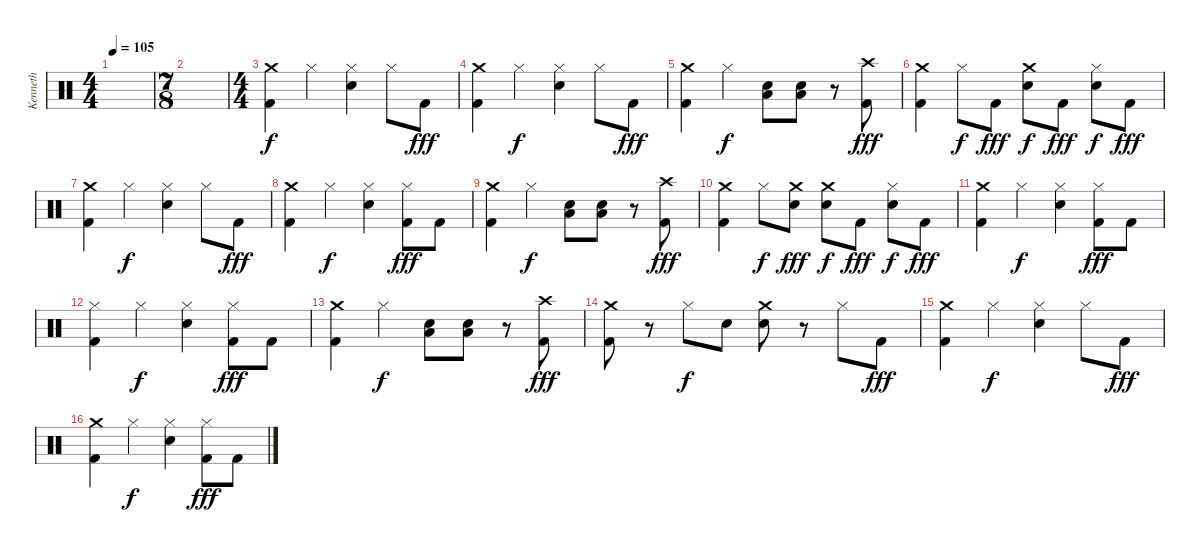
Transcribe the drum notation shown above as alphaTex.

\track ("Kenneth" "Kenneth") {instrument percussion}
\staff {score}
\articulation defaults
\ts (4 4)
\tempo 105
\clef neutral
\ks c
|
\ts (7 8)
|
\ts (4 4)
("Crash medium (hit)" "Kick (hit) 2").4 "Hi-Hat (closed)".4{dy f} ("Hi-Hat (closed)" "Electric Snare (hit)").4 "Hi-Hat (closed)".8 "Kick (hit) 2".8{dy fff} |
("Crash medium (hit)" "Kick (hit) 2").4 "Hi-Hat (closed)".4{dy f} ("Hi-Hat (closed)" "Electric Snare (hit)").4 "Hi-Hat (closed)".8 "Kick (hit) 2".8{dy fff} |
("Crash medium (hit)" "Kick (hit) 2").4 "Hi-Hat (closed)".4{dy f} ("Low Tom (hit)" "Electric Snare (hit)").8 ("Low Tom (hit)" "Electric Snare (hit)").8 r.8 ("Crash high (hit)" "Kick (hit) 2").8{dy fff} |
("Crash medium (hit)" "Kick (hit) 2").4 "Hi-Hat (closed)".8{dy f} "Kick (hit) 2".8{dy fff} ("Crash medium (hit)" "Electric Snare (hit)").8{dy f} "Kick (hit) 2".8{dy fff} ("Hi-Hat (closed)" "Electric Snare (hit)").8{dy f} "Kick (hit) 2".8{dy fff} |
("Crash medium (hit)" "Kick (hit) 2").4 "Hi-Hat (closed)".4{dy f} ("Hi-Hat (closed)" "Electric Snare (hit)").4 "Hi-Hat (closed)".8 "Kick (hit) 2".8{dy fff} |
("Crash medium (hit)" "Kick (hit) 2").4 "Hi-Hat (closed)".4{dy f} ("Hi-Hat (closed)" "Electric Snare (hit)").4 ("Hi-Hat (closed)" "Kick (hit) 2").8{dy fff} "Kick (hit) 2".8 |
("Crash medium (hit)" "Kick (hit) 2").4 "Hi-Hat (closed)".4{dy f} ("Low Tom (hit)" "Electric Snare (hit)").8 ("Low Tom (hit)" "Electric Snare (hit)").8 r.8 ("Crash high (hit)" "Kick (hit) 2").8{dy fff} |
("Crash medium (hit)" "Kick (hit) 2").4 "Hi-Hat (closed)".8{dy f} ("Crash medium (hit)" "Electric Snare (hit)").8{dy fff} ("Crash medium (hit)" "Electric Snare (hit)").8{dy f} "Kick (hit) 2".8{dy fff} ("Hi-Hat (closed)" "Electric Snare (hit)").8{dy f} "Kick (hit) 2".8{dy fff} |
("Crash medium (hit)" "Kick (hit) 2").4 "Hi-Hat (closed)".4{dy f} ("Hi-Hat (closed)" "Electric Snare (hit)").4 ("Hi-Hat (closed)" "Kick (hit) 2").8{dy fff} "Kick (hit) 2".8 |
("Hi-Hat (closed)" "Kick (hit) 2").4 "Hi-Hat (closed)".4{dy f} ("Hi-Hat (closed)" "Electric Snare (hit)").4 ("Hi-Hat (closed)" "Kick (hit) 2").8{dy fff} "Kick (hit) 2".8 |
("Crash medium (hit)" "Kick (hit) 2").4 "Hi-Hat (closed)".4{dy f} ("Low Tom (hit)" "Electric Snare (hit)").8 ("Low Tom (hit)" "Electric Snare (hit)").8 r.8 ("Crash high (hit)" "Kick (hit) 2").8{dy fff} |
("Crash medium (hit)" "Kick (hit) 2").8 r.8 "Hi-Hat (closed)".8{dy f} "Electric Snare (hit)".8 ("Crash medium (hit)" "Electric Snare (hit)").8 r.8 "Hi-Hat (closed)".8 "Kick (hit) 2".8{dy fff} |
("Crash medium (hit)" "Kick (hit) 2").4 "Hi-Hat (closed)".4{dy f} ("Hi-Hat (closed)" "Electric Snare (hit)").4 "Hi-Hat (closed)".8 "Kick (hit) 2".8{dy fff} |
("Crash medium (hit)" "Kick (hit) 2").4 "Hi-Hat (closed)".4{dy f} ("Hi-Hat (closed)" "Electric Snare (hit)").4 ("Hi-Hat (closed)" "Kick (hit) 2").8{dy fff} "Kick (hit) 2".8
